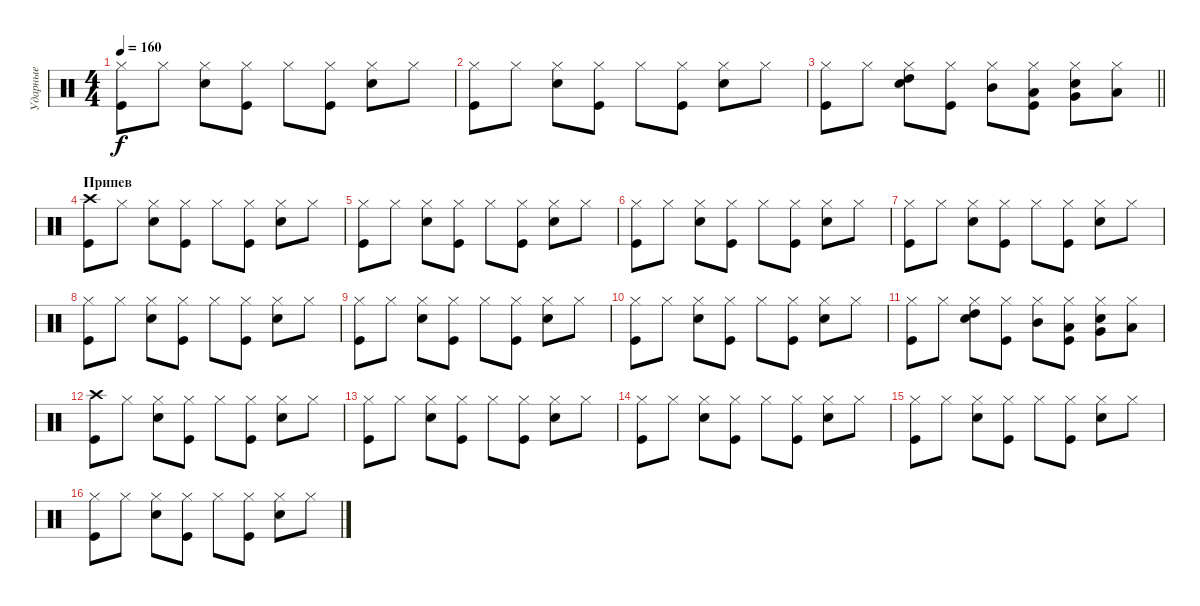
\track ("Ударные" "Ударные") {instrument percussion}
\staff {score}
\articulation defaults
\ts (4 4)
\tempo 160
\clef neutral
\ks c
("Kick (hit)" "Hi-Hat (closed)").8{dy f} "Hi-Hat (closed)".8 ("Snare (hit) 2" "Hi-Hat (closed)").8 ("Kick (hit)" "Hi-Hat (closed)").8 "Hi-Hat (closed)".8 ("Kick (hit)" "Hi-Hat (closed)").8 ("Snare (hit) 2" "Hi-Hat (closed)").8 "Hi-Hat (closed)".8 |
("Kick (hit)" "Hi-Hat (closed)").8 "Hi-Hat (closed)".8 ("Snare (hit) 2" "Hi-Hat (closed)").8 ("Kick (hit)" "Hi-Hat (closed)").8 "Hi-Hat (closed)".8 ("Kick (hit)" "Hi-Hat (closed)").8 ("Snare (hit) 2" "Hi-Hat (closed)").8 "Hi-Hat (closed)".8 |
\barLineRight lightlight
("Kick (hit)" "Hi-Hat (closed)").8 "Hi-Hat (closed)".8 ("Snare (hit) 2" "High Tom (hit)" "Hi-Hat (closed)").8 ("Kick (hit)" "Hi-Hat (closed)").8 ("Mid Tom (hit)" "Hi-Hat (closed)").8 ("Kick (hit)" "Low Tom (hit)" "Hi-Hat (closed)").8 ("Snare (hit) 2" "Very Low Tom (hit)" "Hi-Hat (closed)").8 ("Low Floor Tom (hit)" "Hi-Hat (closed)").8 |
\section ("" "Припев")
("Kick (hit)" "Crash high (hit)").8 "Hi-Hat (closed)".8 ("Snare (hit) 2" "Hi-Hat (closed)").8 ("Kick (hit)" "Hi-Hat (closed)").8 "Hi-Hat (closed)".8 ("Kick (hit)" "Hi-Hat (closed)").8 ("Snare (hit) 2" "Hi-Hat (closed)").8 "Hi-Hat (closed)".8 |
("Kick (hit)" "Hi-Hat (closed)").8 "Hi-Hat (closed)".8 ("Snare (hit) 2" "Hi-Hat (closed)").8 ("Kick (hit)" "Hi-Hat (closed)").8 "Hi-Hat (closed)".8 ("Kick (hit)" "Hi-Hat (closed)").8 ("Snare (hit) 2" "Hi-Hat (closed)").8 "Hi-Hat (closed)".8 |
("Kick (hit)" "Hi-Hat (closed)").8 "Hi-Hat (closed)".8 ("Snare (hit) 2" "Hi-Hat (closed)").8 ("Kick (hit)" "Hi-Hat (closed)").8 "Hi-Hat (closed)".8 ("Kick (hit)" "Hi-Hat (closed)").8 ("Snare (hit) 2" "Hi-Hat (closed)").8 "Hi-Hat (closed)".8 |
("Kick (hit)" "Hi-Hat (closed)").8 "Hi-Hat (closed)".8 ("Snare (hit) 2" "Hi-Hat (closed)").8 ("Kick (hit)" "Hi-Hat (closed)").8 "Hi-Hat (closed)".8 ("Kick (hit)" "Hi-Hat (closed)").8 ("Snare (hit) 2" "Hi-Hat (closed)").8 "Hi-Hat (closed)".8 |
("Kick (hit)" "Hi-Hat (closed)").8 "Hi-Hat (closed)".8 ("Snare (hit) 2" "Hi-Hat (closed)").8 ("Kick (hit)" "Hi-Hat (closed)").8 "Hi-Hat (closed)".8 ("Kick (hit)" "Hi-Hat (closed)").8 ("Snare (hit) 2" "Hi-Hat (closed)").8 "Hi-Hat (closed)".8 |
("Kick (hit)" "Hi-Hat (closed)").8 "Hi-Hat (closed)".8 ("Snare (hit) 2" "Hi-Hat (closed)").8 ("Kick (hit)" "Hi-Hat (closed)").8 "Hi-Hat (closed)".8 ("Kick (hit)" "Hi-Hat (closed)").8 ("Snare (hit) 2" "Hi-Hat (closed)").8 "Hi-Hat (closed)".8 |
("Kick (hit)" "Hi-Hat (closed)").8 "Hi-Hat (closed)".8 ("Snare (hit) 2" "Hi-Hat (closed)").8 ("Kick (hit)" "Hi-Hat (closed)").8 "Hi-Hat (closed)".8 ("Kick (hit)" "Hi-Hat (closed)").8 ("Snare (hit) 2" "Hi-Hat (closed)").8 "Hi-Hat (closed)".8 |
("Kick (hit)" "Hi-Hat (closed)").8 "Hi-Hat (closed)".8 ("Snare (hit) 2" "High Tom (hit)" "Hi-Hat (closed)").8 ("Kick (hit)" "Hi-Hat (closed)").8 ("Mid Tom (hit)" "Hi-Hat (closed)").8 ("Kick (hit)" "Low Tom (hit)" "Hi-Hat (closed)").8 ("Snare (hit) 2" "Very Low Tom (hit)" "Hi-Hat (closed)").8 ("Low Floor Tom (hit)" "Hi-Hat (closed)").8 |
("Kick (hit)" "Crash high (hit)").8 "Hi-Hat (closed)".8 ("Snare (hit) 2" "Hi-Hat (closed)").8 ("Kick (hit)" "Hi-Hat (closed)").8 "Hi-Hat (closed)".8 ("Kick (hit)" "Hi-Hat (closed)").8 ("Snare (hit) 2" "Hi-Hat (closed)").8 "Hi-Hat (closed)".8 |
("Kick (hit)" "Hi-Hat (closed)").8 "Hi-Hat (closed)".8 ("Snare (hit) 2" "Hi-Hat (closed)").8 ("Kick (hit)" "Hi-Hat (closed)").8 "Hi-Hat (closed)".8 ("Kick (hit)" "Hi-Hat (closed)").8 ("Snare (hit) 2" "Hi-Hat (closed)").8 "Hi-Hat (closed)".8 |
("Kick (hit)" "Hi-Hat (closed)").8 "Hi-Hat (closed)".8 ("Snare (hit) 2" "Hi-Hat (closed)").8 ("Kick (hit)" "Hi-Hat (closed)").8 "Hi-Hat (closed)".8 ("Kick (hit)" "Hi-Hat (closed)").8 ("Snare (hit) 2" "Hi-Hat (closed)").8 "Hi-Hat (closed)".8 |
("Kick (hit)" "Hi-Hat (closed)").8 "Hi-Hat (closed)".8 ("Snare (hit) 2" "Hi-Hat (closed)").8 ("Kick (hit)" "Hi-Hat (closed)").8 "Hi-Hat (closed)".8 ("Kick (hit)" "Hi-Hat (closed)").8 ("Snare (hit) 2" "Hi-Hat (closed)").8 "Hi-Hat (closed)".8 |
("Kick (hit)" "Hi-Hat (closed)").8 "Hi-Hat (closed)".8 ("Snare (hit) 2" "Hi-Hat (closed)").8 ("Kick (hit)" "Hi-Hat (closed)").8 "Hi-Hat (closed)".8 ("Kick (hit)" "Hi-Hat (closed)").8 ("Snare (hit) 2" "Hi-Hat (closed)").8 "Hi-Hat (closed)".8
